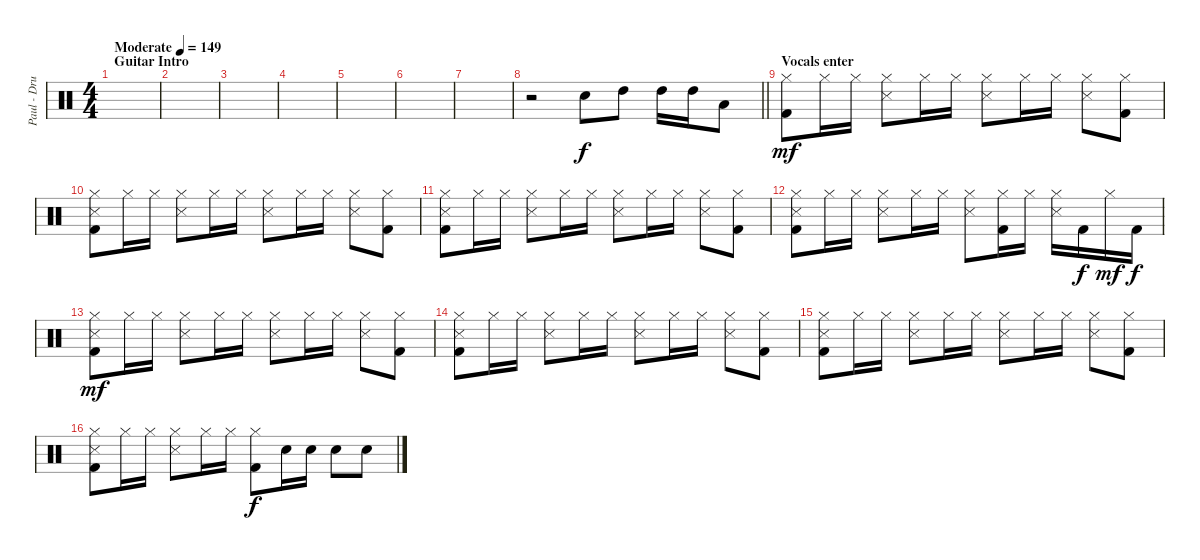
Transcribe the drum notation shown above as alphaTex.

\track ("Paul - Drums" "Paul - Dru") {instrument percussion}
\staff {score}
\articulation defaults
\ts (4 4)
\section ("" "Guitar Intro")
\tempo (149 "Moderate")
\clef neutral
\ks c
|
|
|
|
|
|
|
\barLineRight lightlight
r.2 "Electric Snare (hit)".8 "High Tom (hit)".8 "High Tom (hit)".16 "High Tom (hit)".16 "Low Tom (hit)".8 |
\section ("" "Vocals enter")
("Hi-Hat (closed)" "Kick (hit) 2").8{dy mf} "Hi-Hat (closed)".16 "Hi-Hat (closed)".16 ("Hi-Hat (closed)" "Snare (side stick) 3").8 "Hi-Hat (closed)".16 "Hi-Hat (closed)".16 ("Hi-Hat (closed)" "Snare (side stick) 3").8 "Hi-Hat (closed)".16 "Hi-Hat (closed)".16 ("Hi-Hat (closed)" "Snare (side stick) 3").8 ("Hi-Hat (closed)" "Kick (hit) 2").8 |
("Hi-Hat (closed)" "Snare (side stick) 3" "Kick (hit) 2").8 "Hi-Hat (closed)".16 "Hi-Hat (closed)".16 ("Hi-Hat (closed)" "Snare (side stick) 3").8 "Hi-Hat (closed)".16 "Hi-Hat (closed)".16 ("Hi-Hat (closed)" "Snare (side stick) 3").8 "Hi-Hat (closed)".16 "Hi-Hat (closed)".16 ("Hi-Hat (closed)" "Snare (side stick) 3").8 ("Hi-Hat (closed)" "Kick (hit) 2").8 |
("Hi-Hat (closed)" "Snare (side stick) 3" "Kick (hit) 2").8 "Hi-Hat (closed)".16 "Hi-Hat (closed)".16 ("Hi-Hat (closed)" "Snare (side stick) 3").8 "Hi-Hat (closed)".16 "Hi-Hat (closed)".16 ("Hi-Hat (closed)" "Snare (side stick) 3").8 "Hi-Hat (closed)".16 "Hi-Hat (closed)".16 ("Hi-Hat (closed)" "Snare (side stick) 3").8 ("Hi-Hat (closed)" "Kick (hit) 2").8 |
("Hi-Hat (closed)" "Snare (side stick) 3" "Kick (hit) 2").8 "Hi-Hat (closed)".16 "Hi-Hat (closed)".16 ("Hi-Hat (closed)" "Snare (side stick) 3").8 "Hi-Hat (closed)".16 "Hi-Hat (closed)".16 ("Hi-Hat (closed)" "Snare (side stick) 3").8 ("Hi-Hat (closed)" "Kick (hit) 2").16 "Hi-Hat (closed)".16 ("Hi-Hat (closed)" "Snare (side stick) 3").16 "Kick (hit) 2".16{dy f} "Hi-Hat (closed)".16{dy mf} "Kick (hit) 2".16{dy f} |
("Hi-Hat (closed)" "Snare (side stick) 3" "Kick (hit) 2").8{dy mf} "Hi-Hat (closed)".16 "Hi-Hat (closed)".16 ("Hi-Hat (closed)" "Snare (side stick) 3").8 "Hi-Hat (closed)".16 "Hi-Hat (closed)".16 ("Hi-Hat (closed)" "Snare (side stick) 3").8 "Hi-Hat (closed)".16 "Hi-Hat (closed)".16 ("Hi-Hat (closed)" "Snare (side stick) 3").8 ("Hi-Hat (closed)" "Kick (hit) 2").8 |
("Hi-Hat (closed)" "Snare (side stick) 3" "Kick (hit) 2").8 "Hi-Hat (closed)".16 "Hi-Hat (closed)".16 ("Hi-Hat (closed)" "Snare (side stick) 3").8 "Hi-Hat (closed)".16 "Hi-Hat (closed)".16 ("Hi-Hat (closed)" "Snare (side stick) 3").8 "Hi-Hat (closed)".16 "Hi-Hat (closed)".16 ("Hi-Hat (closed)" "Snare (side stick) 3").8 ("Hi-Hat (closed)" "Kick (hit) 2").8 |
("Hi-Hat (closed)" "Snare (side stick) 3" "Kick (hit) 2").8 "Hi-Hat (closed)".16 "Hi-Hat (closed)".16 ("Hi-Hat (closed)" "Snare (side stick) 3").8 "Hi-Hat (closed)".16 "Hi-Hat (closed)".16 ("Hi-Hat (closed)" "Snare (side stick) 3").8 "Hi-Hat (closed)".16 "Hi-Hat (closed)".16 ("Hi-Hat (closed)" "Snare (side stick) 3").8 ("Hi-Hat (closed)" "Kick (hit) 2").8 |
("Hi-Hat (closed)" "Snare (side stick) 3" "Kick (hit) 2").8 "Hi-Hat (closed)".16 "Hi-Hat (closed)".16 ("Hi-Hat (closed)" "Snare (side stick) 3").8 "Hi-Hat (closed)".16 "Hi-Hat (closed)".16 ("Hi-Hat (closed)" "Kick (hit) 2").8{dy f} "Electric Snare (hit)".16 "Electric Snare (hit)".16 "Electric Snare (hit)".8 "Electric Snare (hit)".8
